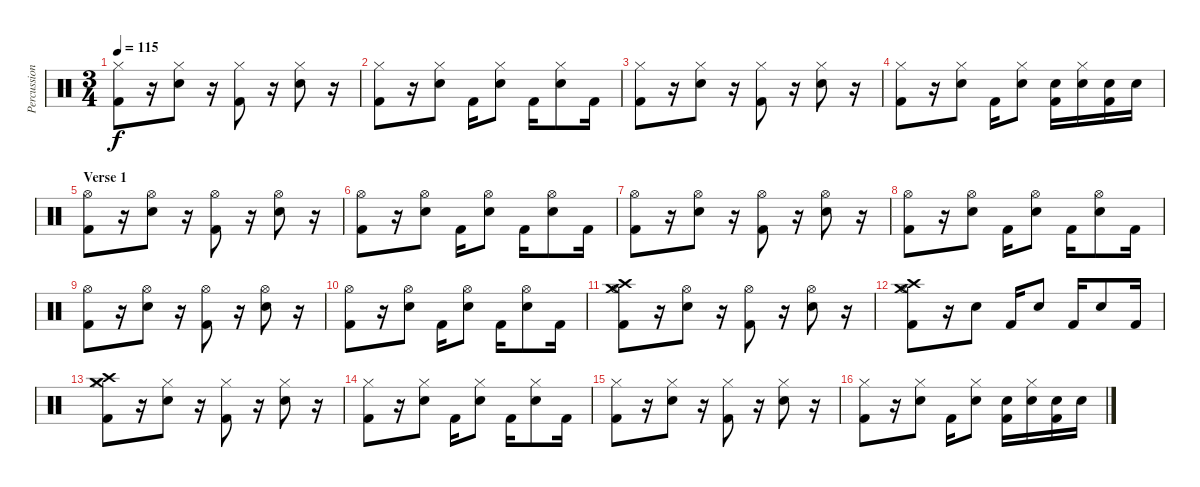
\track ("Percussion" "Percussion") {instrument percussion}
\staff {score}
\articulation defaults
\ts (3 4)
\tempo 115
\clef neutral
\ks c
("Hi-Hat (closed)" "Kick (hit) 2").8{dy f} r.16 ("Hi-Hat (closed)" "Snare (hit) 2").8 r.16 ("Hi-Hat (closed)" "Kick (hit) 2").8 r.16 ("Hi-Hat (closed)" "Snare (hit) 2").8 r.16 |
("Hi-Hat (closed)" "Kick (hit) 2").8 r.16 ("Hi-Hat (closed)" "Snare (hit) 2").8 "Kick (hit) 2".16 ("Hi-Hat (closed)" "Snare (hit) 2").8 "Kick (hit) 2".16 ("Hi-Hat (closed)" "Snare (hit) 2").8 "Kick (hit) 2".16 |
("Hi-Hat (closed)" "Kick (hit) 2").8 r.16 ("Hi-Hat (closed)" "Snare (hit) 2").8 r.16 ("Hi-Hat (closed)" "Kick (hit) 2").8 r.16 ("Hi-Hat (closed)" "Snare (hit) 2").8 r.16 |
("Hi-Hat (closed)" "Kick (hit) 2").8 r.16 ("Hi-Hat (closed)" "Snare (hit) 2").8 "Kick (hit) 2".16 ("Hi-Hat (closed)" "Snare (hit) 2").8 ("Snare (hit) 2" "Kick (hit) 2").16 ("Hi-Hat (closed)" "Snare (hit) 2").16 ("Snare (hit) 2" "Kick (hit) 2").16 "Snare (hit) 2".16 |
\section ("" "Verse 1")
("Hi-Hat (open)" "Kick (hit) 2").8 r.16 ("Hi-Hat (open)" "Snare (hit) 2").8 r.16 ("Hi-Hat (open)" "Kick (hit) 2").8 r.16 ("Hi-Hat (open)" "Snare (hit) 2").8 r.16 |
("Hi-Hat (open)" "Kick (hit) 2").8 r.16 ("Hi-Hat (open)" "Snare (hit) 2").8 "Kick (hit) 2".16 ("Hi-Hat (open)" "Snare (hit) 2").8 "Kick (hit) 2".16 ("Hi-Hat (open)" "Snare (hit) 2").8 "Kick (hit) 2".16 |
("Hi-Hat (open)" "Kick (hit) 2").8 r.16 ("Hi-Hat (open)" "Snare (hit) 2").8 r.16 ("Hi-Hat (open)" "Kick (hit) 2").8 r.16 ("Hi-Hat (open)" "Snare (hit) 2").8 r.16 |
("Hi-Hat (open)" "Kick (hit) 2").8 r.16 ("Hi-Hat (open)" "Snare (hit) 2").8 "Kick (hit) 2".16 ("Hi-Hat (open)" "Snare (hit) 2").8 "Kick (hit) 2".16 ("Hi-Hat (open)" "Snare (hit) 2").8 "Kick (hit) 2".16 |
("Hi-Hat (open)" "Kick (hit) 2").8 r.16 ("Hi-Hat (open)" "Snare (hit) 2").8 r.16 ("Hi-Hat (open)" "Kick (hit) 2").8 r.16 ("Hi-Hat (open)" "Snare (hit) 2").8 r.16 |
("Hi-Hat (open)" "Kick (hit) 2").8 r.16 ("Hi-Hat (open)" "Snare (hit) 2").8 "Kick (hit) 2".16 ("Hi-Hat (open)" "Snare (hit) 2").8 "Kick (hit) 2".16 ("Hi-Hat (open)" "Snare (hit) 2").8 "Kick (hit) 2".16 |
("Hi-Hat (open)" "Crash high (hit)" "Crash medium (hit)" "Kick (hit) 2").8 r.16 ("Hi-Hat (open)" "Snare (hit) 2").8 r.16 ("Hi-Hat (open)" "Kick (hit) 2").8 r.16 ("Hi-Hat (open)" "Snare (hit) 2").8 r.16 |
("Hi-Hat (open)" "Crash medium (hit)" "Crash high (hit)" "Kick (hit) 2").8 r.16 "Snare (hit) 2".8 "Kick (hit) 2".16 "Snare (hit) 2".8 "Kick (hit) 2".16 "Snare (hit) 2".8 "Kick (hit) 2".16 |
("Hi-Hat (closed)" "Crash medium (hit)" "Crash high (hit)" "Kick (hit) 2").8 r.16 ("Hi-Hat (closed)" "Snare (hit) 2").8 r.16 ("Hi-Hat (closed)" "Kick (hit) 2").8 r.16 ("Hi-Hat (closed)" "Snare (hit) 2").8 r.16 |
("Hi-Hat (closed)" "Kick (hit) 2").8 r.16 ("Hi-Hat (closed)" "Snare (hit) 2").8 "Kick (hit) 2".16 ("Hi-Hat (closed)" "Snare (hit) 2").8 "Kick (hit) 2".16 ("Hi-Hat (closed)" "Snare (hit) 2").8 "Kick (hit) 2".16 |
("Hi-Hat (closed)" "Kick (hit) 2").8 r.16 ("Hi-Hat (closed)" "Snare (hit) 2").8 r.16 ("Hi-Hat (closed)" "Kick (hit) 2").8 r.16 ("Hi-Hat (closed)" "Snare (hit) 2").8 r.16 |
("Hi-Hat (closed)" "Kick (hit) 2").8 r.16 ("Hi-Hat (closed)" "Snare (hit) 2").8 "Kick (hit) 2".16 ("Hi-Hat (closed)" "Snare (hit) 2").8 ("Snare (hit) 2" "Kick (hit) 2").16 ("Hi-Hat (closed)" "Snare (hit) 2").16 ("Snare (hit) 2" "Kick (hit) 2").16 "Snare (hit) 2".16
